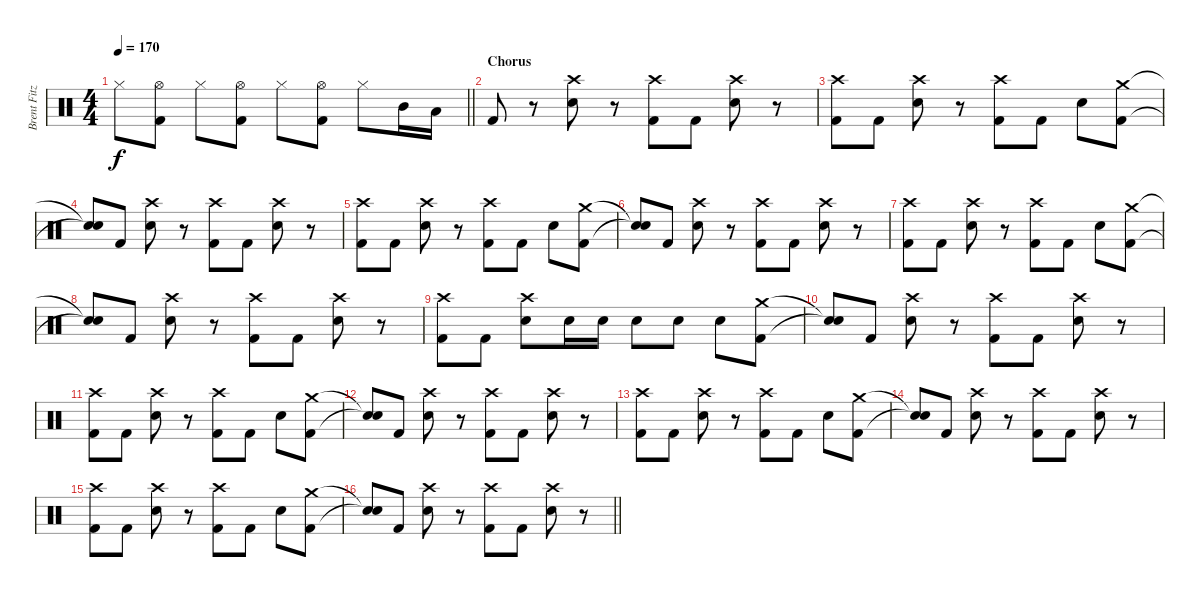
\track ("Brent Fitz" "Brent Fitz") {instrument percussion}
\staff {score}
\articulation defaults
\ts (4 4)
\tempo 170
\clef neutral
\barLineRight lightlight
\ks c "Hi-Hat (closed)".8{dy f}
("Hi-Hat (open)" "Kick (hit) 2").8 "Hi-Hat (closed)".8 ("Hi-Hat (open)" "Kick (hit) 2").8 "Hi-Hat (closed)".8 ("Hi-Hat (open)" "Kick (hit) 2").8 "Hi-Hat (closed)".8 "Mid Tom (hit)".16 "Low Tom (hit)".16 |
\section ("" "Chorus")
"Kick (hit) 2".8 r.8 ("Crash high (hit)" "Electric Snare (hit)").8 r.8 ("Crash high (hit)" "Kick (hit) 2").8 "Kick (hit) 2".8 ("Crash high (hit)" "Electric Snare (hit)").8 r.8 |
("Crash high (hit)" "Kick (hit) 2").8 "Kick (hit) 2".8 ("Crash high (hit)" "Electric Snare (hit)").8 r.8 ("Crash high (hit)" "Kick (hit) 2").8 "Kick (hit) 2".8 "Electric Snare (hit)".8 ("Crash medium (hit)" "Kick (hit) 2").8 |
("Snare (hit)"{t} "Snare (hit)"{t}).8 "Kick (hit) 2".8 ("Crash high (hit)" "Electric Snare (hit)").8 r.8 ("Crash high (hit)" "Kick (hit) 2").8 "Kick (hit) 2".8 ("Crash high (hit)" "Electric Snare (hit)").8 r.8 |
("Crash high (hit)" "Kick (hit) 2").8 "Kick (hit) 2".8 ("Crash high (hit)" "Electric Snare (hit)").8 r.8 ("Crash high (hit)" "Kick (hit) 2").8 "Kick (hit) 2".8 "Electric Snare (hit)".8 ("Crash medium (hit)" "Kick (hit) 2").8 |
("Snare (hit)"{t} "Snare (hit)"{t}).8 "Kick (hit) 2".8 ("Crash high (hit)" "Electric Snare (hit)").8 r.8 ("Crash high (hit)" "Kick (hit) 2").8 "Kick (hit) 2".8 ("Crash high (hit)" "Electric Snare (hit)").8 r.8 |
("Crash high (hit)" "Kick (hit) 2").8 "Kick (hit) 2".8 ("Crash high (hit)" "Electric Snare (hit)").8 r.8 ("Crash high (hit)" "Kick (hit) 2").8 "Kick (hit) 2".8 "Electric Snare (hit)".8 ("Crash medium (hit)" "Kick (hit) 2").8 |
("Snare (hit)"{t} "Snare (hit)"{t}).8 "Kick (hit) 2".8 ("Crash high (hit)" "Electric Snare (hit)").8 r.8 ("Crash high (hit)" "Kick (hit) 2").8 "Kick (hit) 2".8 ("Crash high (hit)" "Electric Snare (hit)").8 r.8 |
("Crash high (hit)" "Kick (hit) 2").8 "Kick (hit) 2".8 ("Crash high (hit)" "Electric Snare (hit)").8 "Electric Snare (hit)".16 "Electric Snare (hit)".16 "Electric Snare (hit)".8 "Electric Snare (hit)".8 "Electric Snare (hit)".8 ("Crash medium (hit)" "Kick (hit) 2").8 |
("Snare (hit)"{t} "Snare (hit)"{t}).8 "Kick (hit) 2".8 ("Crash high (hit)" "Electric Snare (hit)").8 r.8 ("Crash high (hit)" "Kick (hit) 2").8 "Kick (hit) 2".8 ("Crash high (hit)" "Electric Snare (hit)").8 r.8 |
("Crash high (hit)" "Kick (hit) 2").8 "Kick (hit) 2".8 ("Crash high (hit)" "Electric Snare (hit)").8 r.8 ("Crash high (hit)" "Kick (hit) 2").8 "Kick (hit) 2".8 "Electric Snare (hit)".8 ("Crash medium (hit)" "Kick (hit) 2").8 |
("Snare (hit)"{t} "Snare (hit)"{t}).8 "Kick (hit) 2".8 ("Crash high (hit)" "Electric Snare (hit)").8 r.8 ("Crash high (hit)" "Kick (hit) 2").8 "Kick (hit) 2".8 ("Crash high (hit)" "Electric Snare (hit)").8 r.8 |
("Crash high (hit)" "Kick (hit) 2").8 "Kick (hit) 2".8 ("Crash high (hit)" "Electric Snare (hit)").8 r.8 ("Crash high (hit)" "Kick (hit) 2").8 "Kick (hit) 2".8 "Electric Snare (hit)".8 ("Crash medium (hit)" "Kick (hit) 2").8 |
("Snare (hit)"{t} "Snare (hit)"{t}).8 "Kick (hit) 2".8 ("Crash high (hit)" "Electric Snare (hit)").8 r.8 ("Crash high (hit)" "Kick (hit) 2").8 "Kick (hit) 2".8 ("Crash high (hit)" "Electric Snare (hit)").8 r.8 |
("Crash high (hit)" "Kick (hit) 2").8 "Kick (hit) 2".8 ("Crash high (hit)" "Electric Snare (hit)").8 r.8 ("Crash high (hit)" "Kick (hit) 2").8 "Kick (hit) 2".8 "Electric Snare (hit)".8 ("Crash medium (hit)" "Kick (hit) 2").8 |
\barLineRight lightlight
("Snare (hit)"{t} "Snare (hit)"{t}).8 "Kick (hit) 2".8 ("Crash high (hit)" "Electric Snare (hit)").8 r.8 ("Crash high (hit)" "Kick (hit) 2").8 "Kick (hit) 2".8 ("Crash high (hit)" "Electric Snare (hit)").8 r.8
